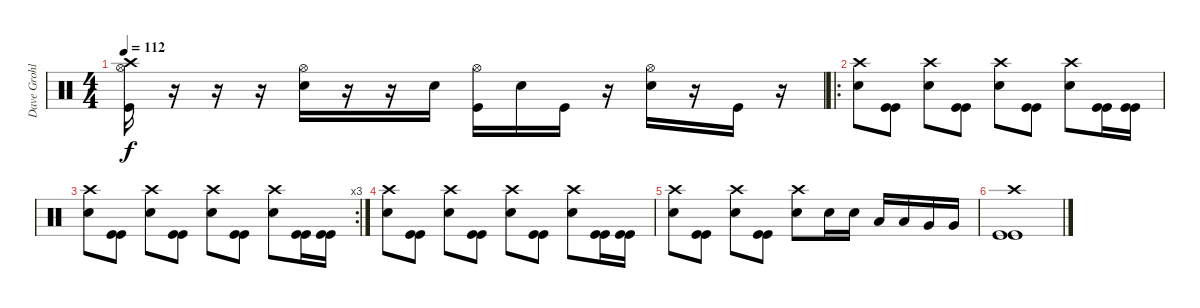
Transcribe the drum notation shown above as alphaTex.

\track ("Dave Grohl (Drums)" "Dave Grohl") {instrument percussion}
\staff {score}
\articulation defaults
\ts (4 4)
\tempo 112
\clef neutral
\ks c
("Hi-Hat (open)" "Kick (hit)" "Crash high (hit)").16{dy f} r.16 r.16 r.16 ("Hi-Hat (open)" "Electric Snare (hit)").16 r.16 r.16 "Electric Snare (hit)".16 ("Hi-Hat (open)" "Kick (hit)").16 "Electric Snare (hit)".16 "Kick (hit)".16 r.16 ("Hi-Hat (open)" "Electric Snare (hit)").16 r.16 "Kick (hit)".16 r.16 |
\ro
("Crash high (hit)" "Electric Snare (hit)").8 ("Kick (hit)" "Kick (hit)").8 ("Crash high (hit)" "Electric Snare (hit)").8 ("Kick (hit)" "Kick (hit)").8 ("Crash high (hit)" "Electric Snare (hit)").8 ("Kick (hit)" "Kick (hit)").8 ("Crash high (hit)" "Electric Snare (hit)").8 ("Kick (hit)" "Kick (hit)").16 ("Kick (hit)" "Kick (hit)").16 |
\rc 3
("Crash high (hit)" "Electric Snare (hit)").8 ("Kick (hit)" "Kick (hit)").8 ("Crash high (hit)" "Electric Snare (hit)").8 ("Kick (hit)" "Kick (hit)").8 ("Crash high (hit)" "Electric Snare (hit)").8 ("Kick (hit)" "Kick (hit)").8 ("Crash high (hit)" "Electric Snare (hit)").8 ("Kick (hit)" "Kick (hit)").16 ("Kick (hit)" "Kick (hit)").16 |
("Crash high (hit)" "Electric Snare (hit)").8 ("Kick (hit)" "Kick (hit)").8 ("Crash high (hit)" "Electric Snare (hit)").8 ("Kick (hit)" "Kick (hit)").8 ("Crash high (hit)" "Electric Snare (hit)").8 ("Kick (hit)" "Kick (hit)").8 ("Crash high (hit)" "Electric Snare (hit)").8 ("Kick (hit)" "Kick (hit)").16 ("Kick (hit)" "Kick (hit)").16 |
("Crash high (hit)" "Electric Snare (hit)").8 ("Kick (hit)" "Kick (hit)").8 ("Crash high (hit)" "Electric Snare (hit)").8 ("Kick (hit)" "Kick (hit)").8 ("Crash high (hit)" "Electric Snare (hit)").8 "Electric Snare (hit)".16 "Electric Snare (hit)".16 "Low Floor Tom (hit)".16 "Low Floor Tom (hit)".16 "Very Low Tom (hit)".16 "Very Low Tom (hit)".16 |
("Crash high (hit)" "Kick (hit)" "Kick (hit)").1
